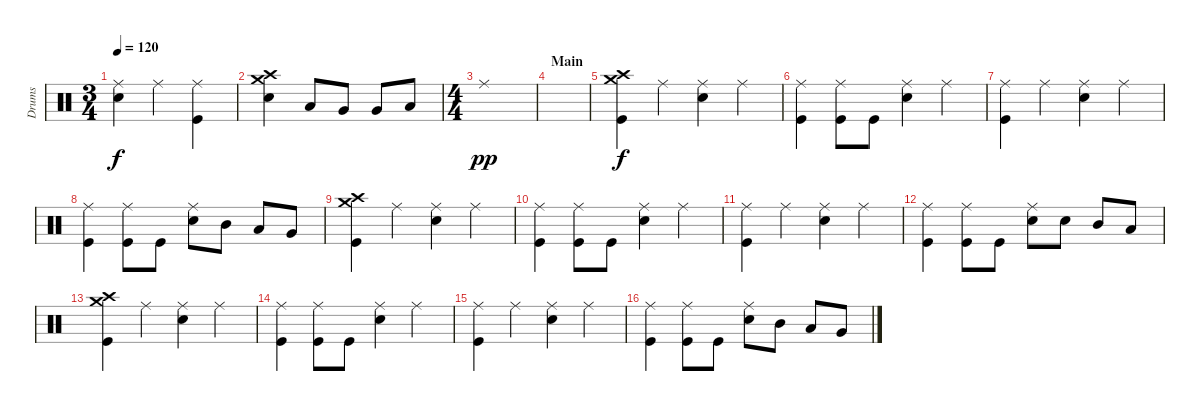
\track ("Drums" "Drums") {instrument percussion}
\staff {score}
\articulation defaults
\ts (3 4)
\tempo 120
\clef neutral
\ks c
("Ride (middle)" "Snare (hit) 2").4{dy f} "Ride (middle)".4 ("Ride (middle)" "Kick (hit)").4 |
("Crash medium (hit)" "Crash high (hit)" "Snare (hit) 2").4 "Low Tom (hit)".8 "Very Low Tom (hit)".8 "Very Low Tom (hit)".8 "Low Floor Tom (hit)".8 |
\ts (4 4)
"Ride (middle)".1{dy pp} |
\section ("" "Main")
|
("Crash medium (hit)" "Crash high (hit)" "Kick (hit)").4{dy f} "Ride (middle)".4 ("Ride (middle)" "Snare (hit) 2").4 "Ride (middle)".4 |
("Ride (middle)" "Kick (hit)").4 ("Ride (middle)" "Kick (hit)").8 "Kick (hit)".8 ("Ride (middle)" "Snare (hit) 2").4 "Ride (middle)".4 |
("Ride (middle)" "Kick (hit)").4 "Ride (middle)".4 ("Ride (middle)" "Snare (hit) 2").4 "Ride (middle)".4 |
("Ride (middle)" "Kick (hit)").4 ("Ride (middle)" "Kick (hit)").8 "Kick (hit)".8 ("Ride (middle)" "Snare (hit) 2").8 "Mid Tom (hit)".8 "Low Tom (hit)".8 "Very Low Tom (hit)".8 |
("Crash medium (hit)" "Crash high (hit)" "Kick (hit)").4 "Ride (middle)".4 ("Ride (middle)" "Snare (hit) 2").4 "Ride (middle)".4 |
("Ride (middle)" "Kick (hit)").4 ("Ride (middle)" "Kick (hit)").8 "Kick (hit)".8 ("Ride (middle)" "Snare (hit) 2").4 "Ride (middle)".4 |
("Ride (middle)" "Kick (hit)").4 "Ride (middle)".4 ("Ride (middle)" "Snare (hit) 2").4 "Ride (middle)".4 |
("Ride (middle)" "Kick (hit)").4 ("Ride (middle)" "Kick (hit)").8 "Kick (hit)".8 ("Ride (middle)" "Snare (hit) 2").8 "Snare (hit) 2".8 "Mid Tom (hit)".8 "Low Tom (hit)".8 |
("Crash medium (hit)" "Crash high (hit)" "Kick (hit)").4 "Ride (middle)".4 ("Ride (middle)" "Snare (hit) 2").4 "Ride (middle)".4 |
("Ride (middle)" "Kick (hit)").4 ("Ride (middle)" "Kick (hit)").8 "Kick (hit)".8 ("Ride (middle)" "Snare (hit) 2").4 "Ride (middle)".4 |
("Ride (middle)" "Kick (hit)").4 "Ride (middle)".4 ("Ride (middle)" "Snare (hit) 2").4 "Ride (middle)".4 |
("Ride (middle)" "Kick (hit)").4 ("Ride (middle)" "Kick (hit)").8 "Kick (hit)".8 ("Ride (middle)" "Snare (hit) 2").8 "Mid Tom (hit)".8 "Low Tom (hit)".8 "Very Low Tom (hit)".8
